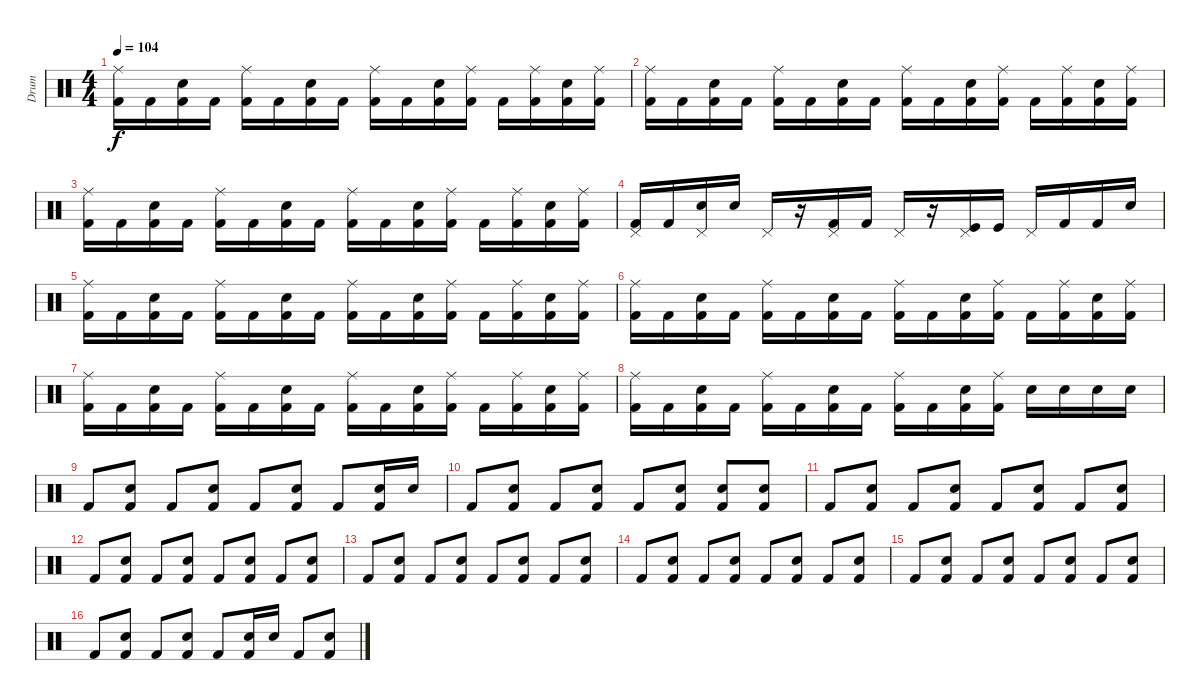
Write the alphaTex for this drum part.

\track ("Drum" "Drum") {instrument percussion}
\staff {score}
\articulation defaults
\ts (4 4)
\tempo 104
\clef neutral
\ks c
("Kick (hit) 2" "Ride (middle)").16{dy f} "Kick (hit) 2".16 ("Snare (hit) 2" "Kick (hit) 2").16 "Kick (hit) 2".16 ("Kick (hit) 2" "Ride (middle)").16 "Kick (hit) 2".16 ("Snare (hit) 2" "Kick (hit) 2").16 "Kick (hit) 2".16 ("Kick (hit) 2" "Ride (middle)").16 "Kick (hit) 2".16 ("Snare (hit) 2" "Kick (hit) 2").16 ("Kick (hit) 2" "Ride (middle)").16 "Kick (hit) 2".16 ("Kick (hit) 2" "Ride (middle)").16 ("Snare (hit) 2" "Kick (hit) 2").16 ("Kick (hit) 2" "Ride (middle)").16 |
("Kick (hit) 2" "Ride (middle)").16 "Kick (hit) 2".16 ("Snare (hit) 2" "Kick (hit) 2").16 "Kick (hit) 2".16 ("Kick (hit) 2" "Ride (middle)").16 "Kick (hit) 2".16 ("Snare (hit) 2" "Kick (hit) 2").16 "Kick (hit) 2".16 ("Kick (hit) 2" "Ride (middle)").16 "Kick (hit) 2".16 ("Snare (hit) 2" "Kick (hit) 2").16 ("Kick (hit) 2" "Ride (middle)").16 "Kick (hit) 2".16 ("Kick (hit) 2" "Ride (middle)").16 ("Snare (hit) 2" "Kick (hit) 2").16 ("Kick (hit) 2" "Ride (middle)").16 |
("Kick (hit) 2" "Ride (middle)").16 "Kick (hit) 2".16 ("Snare (hit) 2" "Kick (hit) 2").16 "Kick (hit) 2".16 ("Kick (hit) 2" "Ride (middle)").16 "Kick (hit) 2".16 ("Snare (hit) 2" "Kick (hit) 2").16 "Kick (hit) 2".16 ("Kick (hit) 2" "Ride (middle)").16 "Kick (hit) 2".16 ("Snare (hit) 2" "Kick (hit) 2").16 ("Kick (hit) 2" "Ride (middle)").16 "Kick (hit) 2".16 ("Kick (hit) 2" "Ride (middle)").16 ("Snare (hit) 2" "Kick (hit) 2").16 ("Kick (hit) 2" "Ride (middle)").16 |
("Kick (hit) 2" "Pedal Hi-Hat (hit)").16 "Kick (hit) 2".16 ("Snare (hit) 2" "Pedal Hi-Hat (hit)").16 "Snare (hit) 2".16 "Pedal Hi-Hat (hit)".16 r.16 ("Kick (hit) 2" "Pedal Hi-Hat (hit)").16 "Kick (hit) 2".16 "Pedal Hi-Hat (hit)".16 r.16 ("Kick (hit)" "Pedal Hi-Hat (hit)").16 "Kick (hit)".16 "Pedal Hi-Hat (hit)".16 "Kick (hit) 2".16 "Kick (hit) 2".16 "Snare (hit) 2".16 |
("Kick (hit) 2" "Ride (middle)").16 "Kick (hit) 2".16 ("Snare (hit) 2" "Kick (hit) 2").16 "Kick (hit) 2".16 ("Kick (hit) 2" "Ride (middle)").16 "Kick (hit) 2".16 ("Snare (hit) 2" "Kick (hit) 2").16 "Kick (hit) 2".16 ("Kick (hit) 2" "Ride (middle)").16 "Kick (hit) 2".16 ("Snare (hit) 2" "Kick (hit) 2").16 ("Kick (hit) 2" "Ride (middle)").16 "Kick (hit) 2".16 ("Kick (hit) 2" "Ride (middle)").16 ("Snare (hit) 2" "Kick (hit) 2").16 ("Kick (hit) 2" "Ride (middle)").16 |
("Kick (hit) 2" "Ride (middle)").16 "Kick (hit) 2".16 ("Snare (hit) 2" "Kick (hit) 2").16 "Kick (hit) 2".16 ("Kick (hit) 2" "Ride (middle)").16 "Kick (hit) 2".16 ("Snare (hit) 2" "Kick (hit) 2").16 "Kick (hit) 2".16 ("Kick (hit) 2" "Ride (middle)").16 "Kick (hit) 2".16 ("Snare (hit) 2" "Kick (hit) 2").16 ("Kick (hit) 2" "Ride (middle)").16 "Kick (hit) 2".16 ("Kick (hit) 2" "Ride (middle)").16 ("Snare (hit) 2" "Kick (hit) 2").16 ("Kick (hit) 2" "Ride (middle)").16 |
("Kick (hit) 2" "Ride (middle)").16 "Kick (hit) 2".16 ("Snare (hit) 2" "Kick (hit) 2").16 "Kick (hit) 2".16 ("Kick (hit) 2" "Ride (middle)").16 "Kick (hit) 2".16 ("Snare (hit) 2" "Kick (hit) 2").16 "Kick (hit) 2".16 ("Kick (hit) 2" "Ride (middle)").16 "Kick (hit) 2".16 ("Snare (hit) 2" "Kick (hit) 2").16 ("Kick (hit) 2" "Ride (middle)").16 "Kick (hit) 2".16 ("Kick (hit) 2" "Ride (middle)").16 ("Snare (hit) 2" "Kick (hit) 2").16 ("Kick (hit) 2" "Ride (middle)").16 |
("Kick (hit) 2" "Ride (middle)").16 "Kick (hit) 2".16 ("Snare (hit) 2" "Kick (hit) 2").16 "Kick (hit) 2".16 ("Kick (hit) 2" "Ride (middle)").16 "Kick (hit) 2".16 ("Snare (hit) 2" "Kick (hit) 2").16 "Kick (hit) 2".16 ("Kick (hit) 2" "Ride (middle)").16 "Kick (hit) 2".16 ("Snare (hit) 2" "Kick (hit) 2").16 ("Kick (hit) 2" "Ride (middle)").16 "Snare (hit) 2".16 "Snare (hit) 2".16 "Snare (hit) 2".16 "Snare (hit) 2".16 |
"Kick (hit) 2".8 ("Snare (hit) 2" "Kick (hit) 2").8 "Kick (hit) 2".8 ("Snare (hit) 2" "Kick (hit) 2").8 "Kick (hit) 2".8 ("Snare (hit) 2" "Kick (hit) 2").8 "Kick (hit) 2".8 ("Snare (hit) 2" "Kick (hit) 2").16 "Snare (hit) 2".16 |
"Kick (hit) 2".8 ("Snare (hit) 2" "Kick (hit) 2").8 "Kick (hit) 2".8 ("Snare (hit) 2" "Kick (hit) 2").8 "Kick (hit) 2".8 ("Snare (hit) 2" "Kick (hit) 2").8 ("Snare (hit) 2" "Kick (hit) 2").8 ("Snare (hit) 2" "Kick (hit) 2").8 |
"Kick (hit) 2".8 ("Snare (hit) 2" "Kick (hit) 2").8 "Kick (hit) 2".8 ("Snare (hit) 2" "Kick (hit) 2").8 "Kick (hit) 2".8 ("Snare (hit) 2" "Kick (hit) 2").8 "Kick (hit) 2".8 ("Snare (hit) 2" "Kick (hit) 2").8 |
"Kick (hit) 2".8 ("Snare (hit) 2" "Kick (hit) 2").8 "Kick (hit) 2".8 ("Snare (hit) 2" "Kick (hit) 2").8 "Kick (hit) 2".8 ("Snare (hit) 2" "Kick (hit) 2").8 "Kick (hit) 2".8 ("Snare (hit) 2" "Kick (hit) 2").8 |
"Kick (hit) 2".8 ("Snare (hit) 2" "Kick (hit) 2").8 "Kick (hit) 2".8 ("Snare (hit) 2" "Kick (hit) 2").8 "Kick (hit) 2".8 ("Snare (hit) 2" "Kick (hit) 2").8 "Kick (hit) 2".8 ("Snare (hit) 2" "Kick (hit) 2").8 |
"Kick (hit) 2".8 ("Snare (hit) 2" "Kick (hit) 2").8 "Kick (hit) 2".8 ("Snare (hit) 2" "Kick (hit) 2").8 "Kick (hit) 2".8 ("Snare (hit) 2" "Kick (hit) 2").8 "Kick (hit) 2".8 ("Snare (hit) 2" "Kick (hit) 2").8 |
"Kick (hit) 2".8 ("Snare (hit) 2" "Kick (hit) 2").8 "Kick (hit) 2".8 ("Snare (hit) 2" "Kick (hit) 2").8 "Kick (hit) 2".8 ("Snare (hit) 2" "Kick (hit) 2").8 "Kick (hit) 2".8 ("Snare (hit) 2" "Kick (hit) 2").8 |
"Kick (hit) 2".8 ("Snare (hit) 2" "Kick (hit) 2").8 "Kick (hit) 2".8 ("Snare (hit) 2" "Kick (hit) 2").8 "Kick (hit) 2".8 ("Snare (hit) 2" "Kick (hit) 2").16 "Snare (hit) 2".16 "Kick (hit) 2".8 ("Snare (hit) 2" "Kick (hit) 2").8
